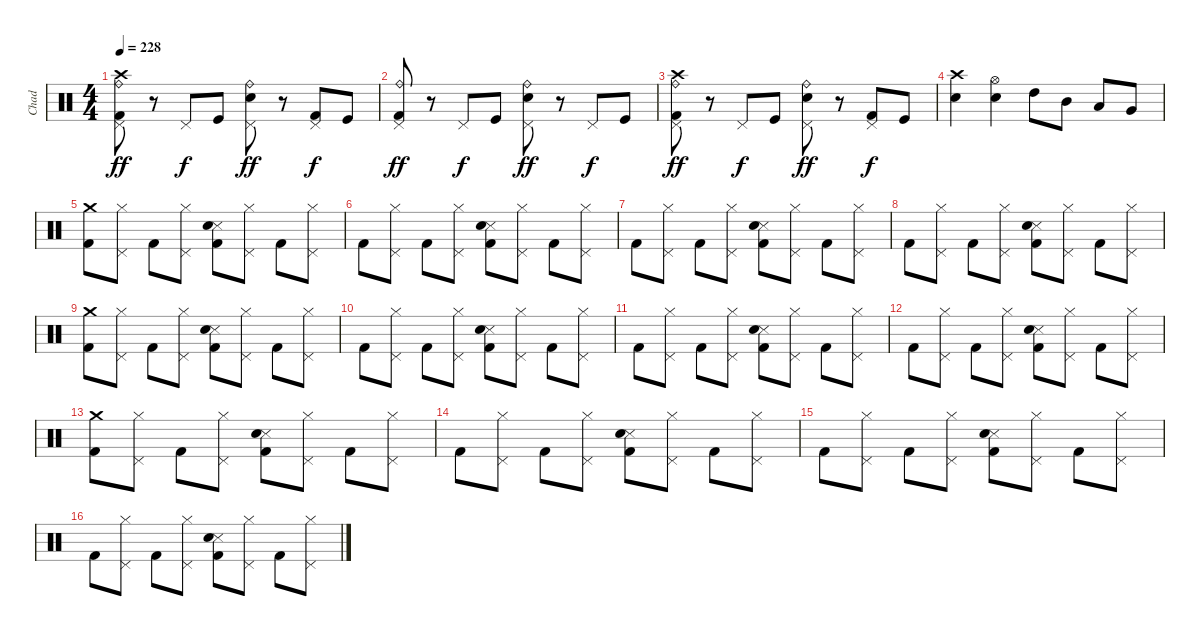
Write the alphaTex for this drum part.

\track ("Chad" "Chad") {instrument percussion}
\staff {score}
\articulation defaults
\ts (4 4)
\tempo 228
\clef neutral
\ks c
("Crash high (hit)" "Ride (bell)" "Kick (hit) 2" "Pedal Hi-Hat (hit)").8{dy ff} r.8 "Pedal Hi-Hat (hit)".8{dy f} "Kick (hit)".8 ("Ride (bell)" "Electric Snare (hit)" "Pedal Hi-Hat (hit)").8{dy ff} r.8 ("Kick (hit) 2" "Pedal Hi-Hat (hit)").8{dy f} "Kick (hit)".8 |
("Ride (bell)" "Kick (hit) 2" "Pedal Hi-Hat (hit)").8{dy ff} r.8 "Pedal Hi-Hat (hit)".8{dy f} "Kick (hit)".8 ("Ride (bell)" "Electric Snare (hit)" "Pedal Hi-Hat (hit)").8{dy ff} r.8 "Pedal Hi-Hat (hit)".8{dy f} "Kick (hit)".8 |
("Crash high (hit)" "Ride (bell)" "Kick (hit) 2" "Pedal Hi-Hat (hit)").8{dy ff} r.8 "Pedal Hi-Hat (hit)".8{dy f} "Kick (hit)".8 ("Ride (bell)" "Electric Snare (hit)" "Pedal Hi-Hat (hit)").8{dy ff} r.8 ("Kick (hit) 2" "Pedal Hi-Hat (hit)").8{dy f} "Kick (hit)".8 |
("Crash high (hit)" "Electric Snare (hit)").4 ("Hi-Hat (open)" "Electric Snare (hit)").4 "High Tom (hit)".8 "Mid Tom (hit)".8 "Low Tom (hit)".8 "Very Low Tom (hit)".8 |
("Crash medium (hit)" "Kick (hit) 2").8 ("Hi-Hat (closed)" "Pedal Hi-Hat (hit)").8 "Kick (hit) 2".8 ("Hi-Hat (closed)" "Pedal Hi-Hat (hit)").8 ("Snare (side stick) 3" "Electric Snare (hit)" "Kick (hit) 2").8 ("Hi-Hat (closed)" "Pedal Hi-Hat (hit)").8 "Kick (hit) 2".8 ("Hi-Hat (closed)" "Pedal Hi-Hat (hit)").8 |
"Kick (hit) 2".8 ("Hi-Hat (closed)" "Pedal Hi-Hat (hit)").8 "Kick (hit) 2".8 ("Hi-Hat (closed)" "Pedal Hi-Hat (hit)").8 ("Snare (side stick) 3" "Electric Snare (hit)" "Kick (hit) 2").8 ("Hi-Hat (closed)" "Pedal Hi-Hat (hit)").8 "Kick (hit) 2".8 ("Hi-Hat (closed)" "Pedal Hi-Hat (hit)").8 |
"Kick (hit) 2".8 ("Hi-Hat (closed)" "Pedal Hi-Hat (hit)").8 "Kick (hit) 2".8 ("Hi-Hat (closed)" "Pedal Hi-Hat (hit)").8 ("Snare (side stick) 3" "Electric Snare (hit)" "Kick (hit) 2").8 ("Hi-Hat (closed)" "Pedal Hi-Hat (hit)").8 "Kick (hit) 2".8 ("Hi-Hat (closed)" "Pedal Hi-Hat (hit)").8 |
"Kick (hit) 2".8 ("Hi-Hat (closed)" "Pedal Hi-Hat (hit)").8 "Kick (hit) 2".8 ("Hi-Hat (closed)" "Pedal Hi-Hat (hit)").8 ("Snare (side stick) 3" "Electric Snare (hit)" "Kick (hit) 2").8 ("Hi-Hat (closed)" "Pedal Hi-Hat (hit)").8 "Kick (hit) 2".8 ("Hi-Hat (closed)" "Pedal Hi-Hat (hit)").8 |
("Crash medium (hit)" "Kick (hit) 2").8 ("Hi-Hat (closed)" "Pedal Hi-Hat (hit)").8 "Kick (hit) 2".8 ("Hi-Hat (closed)" "Pedal Hi-Hat (hit)").8 ("Snare (side stick) 3" "Electric Snare (hit)" "Kick (hit) 2").8 ("Hi-Hat (closed)" "Pedal Hi-Hat (hit)").8 "Kick (hit) 2".8 ("Hi-Hat (closed)" "Pedal Hi-Hat (hit)").8 |
"Kick (hit) 2".8 ("Hi-Hat (closed)" "Pedal Hi-Hat (hit)").8 "Kick (hit) 2".8 ("Hi-Hat (closed)" "Pedal Hi-Hat (hit)").8 ("Snare (side stick) 3" "Electric Snare (hit)" "Kick (hit) 2").8 ("Hi-Hat (closed)" "Pedal Hi-Hat (hit)").8 "Kick (hit) 2".8 ("Hi-Hat (closed)" "Pedal Hi-Hat (hit)").8 |
"Kick (hit) 2".8 ("Hi-Hat (closed)" "Pedal Hi-Hat (hit)").8 "Kick (hit) 2".8 ("Hi-Hat (closed)" "Pedal Hi-Hat (hit)").8 ("Snare (side stick) 3" "Electric Snare (hit)" "Kick (hit) 2").8 ("Hi-Hat (closed)" "Pedal Hi-Hat (hit)").8 "Kick (hit) 2".8 ("Hi-Hat (closed)" "Pedal Hi-Hat (hit)").8 |
"Kick (hit) 2".8 ("Hi-Hat (closed)" "Pedal Hi-Hat (hit)").8 "Kick (hit) 2".8 ("Hi-Hat (closed)" "Pedal Hi-Hat (hit)").8 ("Snare (side stick) 3" "Electric Snare (hit)" "Kick (hit) 2").8 ("Hi-Hat (closed)" "Pedal Hi-Hat (hit)").8 "Kick (hit) 2".8 ("Hi-Hat (closed)" "Pedal Hi-Hat (hit)").8 |
("Crash medium (hit)" "Kick (hit) 2").8 ("Hi-Hat (closed)" "Pedal Hi-Hat (hit)").8 "Kick (hit) 2".8 ("Hi-Hat (closed)" "Pedal Hi-Hat (hit)").8 ("Snare (side stick) 3" "Electric Snare (hit)" "Kick (hit) 2").8 ("Hi-Hat (closed)" "Pedal Hi-Hat (hit)").8 "Kick (hit) 2".8 ("Hi-Hat (closed)" "Pedal Hi-Hat (hit)").8 |
"Kick (hit) 2".8 ("Hi-Hat (closed)" "Pedal Hi-Hat (hit)").8 "Kick (hit) 2".8 ("Hi-Hat (closed)" "Pedal Hi-Hat (hit)").8 ("Snare (side stick) 3" "Electric Snare (hit)" "Kick (hit) 2").8 ("Hi-Hat (closed)" "Pedal Hi-Hat (hit)").8 "Kick (hit) 2".8 ("Hi-Hat (closed)" "Pedal Hi-Hat (hit)").8 |
"Kick (hit) 2".8 ("Hi-Hat (closed)" "Pedal Hi-Hat (hit)").8 "Kick (hit) 2".8 ("Hi-Hat (closed)" "Pedal Hi-Hat (hit)").8 ("Snare (side stick) 3" "Electric Snare (hit)" "Kick (hit) 2").8 ("Hi-Hat (closed)" "Pedal Hi-Hat (hit)").8 "Kick (hit) 2".8 ("Hi-Hat (closed)" "Pedal Hi-Hat (hit)").8 |
"Kick (hit) 2".8 ("Hi-Hat (closed)" "Pedal Hi-Hat (hit)").8 "Kick (hit) 2".8 ("Hi-Hat (closed)" "Pedal Hi-Hat (hit)").8 ("Snare (side stick) 3" "Electric Snare (hit)" "Kick (hit) 2").8 ("Hi-Hat (closed)" "Pedal Hi-Hat (hit)").8 "Kick (hit) 2".8 ("Hi-Hat (closed)" "Pedal Hi-Hat (hit)").8
